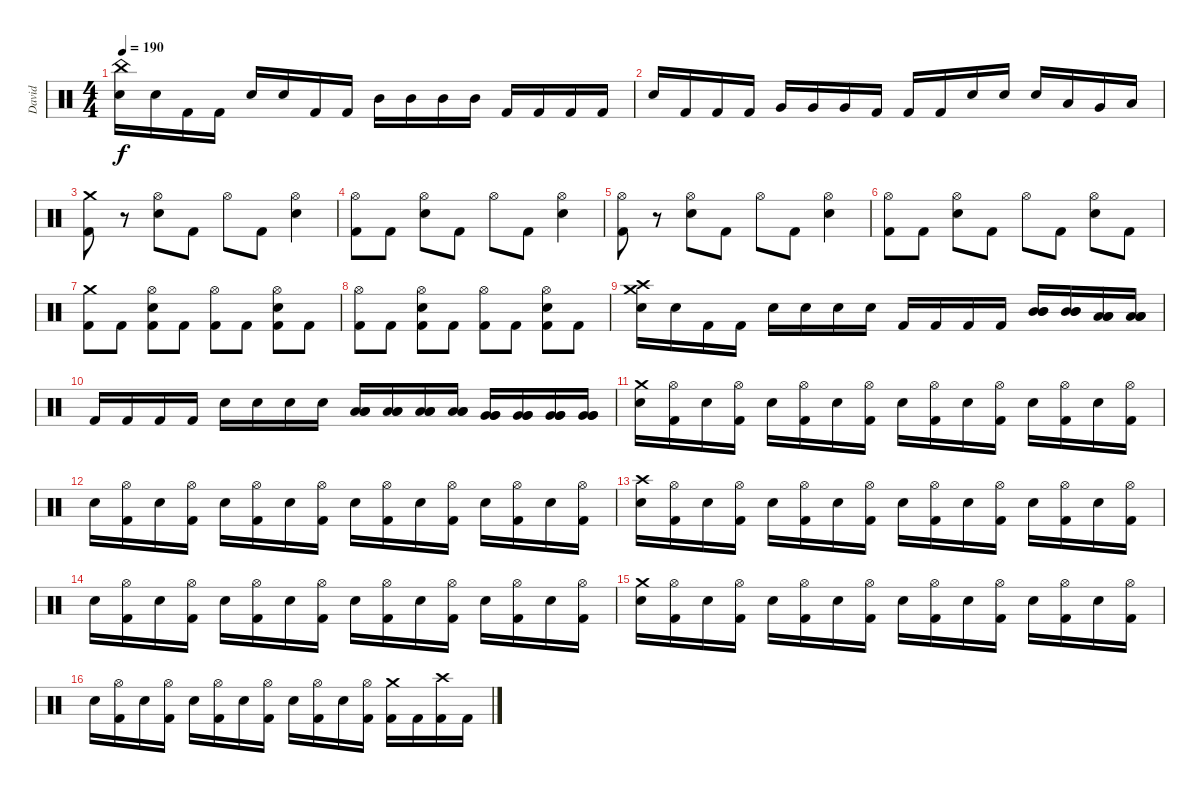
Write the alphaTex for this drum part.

\track ("David" "David") {instrument percussion}
\staff {score}
\articulation defaults
\ts (4 4)
\tempo 190
\clef neutral
\ks c
("China (hit)" "Electric Snare (hit)").16{dy f} "Electric Snare (hit)".16 "Kick (hit) 2".16 "Kick (hit) 2".16 "Electric Snare (hit)".16 "Electric Snare (hit)".16 "Kick (hit) 2".16 "Kick (hit) 2".16 "Mid Tom (hit)".16 "Mid Tom (hit)".16 "Mid Tom (hit)".16 "Mid Tom (hit)".16 "Kick (hit) 2".16 "Kick (hit) 2".16 "Kick (hit) 2".16 "Kick (hit) 2".16 |
"Electric Snare (hit)".16 "Kick (hit) 2".16 "Kick (hit) 2".16 "Kick (hit) 2".16 "Very Low Tom (hit)".16 "Very Low Tom (hit)".16 "Very Low Tom (hit)".16 "Kick (hit) 2".16 "Kick (hit) 2".16 "Kick (hit) 2".16 "Electric Snare (hit)".16 "Electric Snare (hit)".16 "Electric Snare (hit)".16 "Low Tom (hit)".16 "Very Low Tom (hit)".16 "Low Floor Tom (hit)".16 |
("Crash medium (hit)" "Kick (hit) 2").8 r.8 ("Hi-Hat (open)" "Electric Snare (hit)").8 "Kick (hit) 2".8 "Hi-Hat (open)".8 "Kick (hit) 2".8 ("Hi-Hat (open)" "Electric Snare (hit)").4 |
("Hi-Hat (open)" "Kick (hit) 2").8 "Kick (hit) 2".8 ("Hi-Hat (open)" "Electric Snare (hit)").8 "Kick (hit) 2".8 "Hi-Hat (open)".8 "Kick (hit) 2".8 ("Hi-Hat (open)" "Electric Snare (hit)").4 |
("Hi-Hat (open)" "Kick (hit) 2").8 r.8 ("Hi-Hat (open)" "Electric Snare (hit)").8 "Kick (hit) 2".8 "Hi-Hat (open)".8 "Kick (hit) 2".8 ("Hi-Hat (open)" "Electric Snare (hit)").4 |
("Hi-Hat (open)" "Kick (hit) 2").8 "Kick (hit) 2".8 ("Hi-Hat (open)" "Electric Snare (hit)").8 "Kick (hit) 2".8 "Hi-Hat (open)".8 "Kick (hit) 2".8 ("Hi-Hat (open)" "Electric Snare (hit)").8 "Kick (hit) 2".8 |
("Crash medium (hit)" "Kick (hit) 2").8 "Kick (hit) 2".8 ("Hi-Hat (open)" "Electric Snare (hit)" "Kick (hit) 2").8 "Kick (hit) 2".8 ("Hi-Hat (open)" "Kick (hit) 2").8 "Kick (hit) 2".8 ("Hi-Hat (open)" "Electric Snare (hit)" "Kick (hit) 2").8 "Kick (hit) 2".8 |
("Hi-Hat (open)" "Kick (hit) 2").8 "Kick (hit) 2".8 ("Hi-Hat (open)" "Electric Snare (hit)" "Kick (hit) 2").8 "Kick (hit) 2".8 ("Hi-Hat (open)" "Kick (hit) 2").8 "Kick (hit) 2".8 ("Hi-Hat (open)" "Electric Snare (hit)" "Kick (hit) 2").8 "Kick (hit) 2".8 |
("Crash high (hit)" "Crash medium (hit)" "Electric Snare (hit)").16 "Electric Snare (hit)".16 "Kick (hit) 2".16 "Kick (hit) 2".16 "Electric Snare (hit)".16 "Electric Snare (hit)".16 "Electric Snare (hit)".16 "Electric Snare (hit)".16 "Kick (hit) 2".16 "Kick (hit) 2".16 "Kick (hit) 2".16 "Kick (hit) 2".16 ("Mid Tom (hit)" "Mid Tom (hit)" "Mid Tom (hit)").16 ("Mid Tom (hit)" "Mid Tom (hit)" "Mid Tom (hit)").16 ("Low Tom (hit)" "Low Tom (hit)" "Low Tom (hit)").16 ("Low Tom (hit)" "Low Tom (hit)" "Low Tom (hit)").16 |
"Kick (hit) 2".16 "Kick (hit) 2".16 "Kick (hit) 2".16 "Kick (hit) 2".16 "Electric Snare (hit)".16 "Electric Snare (hit)".16 "Electric Snare (hit)".16 "Electric Snare (hit)".16 ("Low Tom (hit)" "Low Tom (hit)" "Low Tom (hit)").16 ("Low Tom (hit)" "Low Tom (hit)" "Low Tom (hit)").16 ("Low Tom (hit)" "Low Tom (hit)" "Low Tom (hit)").16 ("Low Tom (hit)" "Low Tom (hit)" "Low Tom (hit)").16 ("Very Low Tom (hit)" "Very Low Tom (hit)" "Very Low Tom (hit)").16 ("Very Low Tom (hit)" "Very Low Tom (hit)" "Very Low Tom (hit)").16 ("Very Low Tom (hit)" "Very Low Tom (hit)" "Very Low Tom (hit)").16 ("Very Low Tom (hit)" "Very Low Tom (hit)" "Very Low Tom (hit)").16 |
("Crash medium (hit)" "Electric Snare (hit)").16 ("Hi-Hat (open)" "Kick (hit) 2").16 "Electric Snare (hit)".16 ("Hi-Hat (open)" "Kick (hit) 2").16 "Electric Snare (hit)".16 ("Hi-Hat (open)" "Kick (hit) 2").16 "Electric Snare (hit)".16 ("Hi-Hat (open)" "Kick (hit) 2").16 "Electric Snare (hit)".16 ("Hi-Hat (open)" "Kick (hit) 2").16 "Electric Snare (hit)".16 ("Hi-Hat (open)" "Kick (hit) 2").16 "Electric Snare (hit)".16 ("Hi-Hat (open)" "Kick (hit) 2").16 "Electric Snare (hit)".16 ("Hi-Hat (open)" "Kick (hit) 2").16 |
"Electric Snare (hit)".16 ("Hi-Hat (open)" "Kick (hit) 2").16 "Electric Snare (hit)".16 ("Hi-Hat (open)" "Kick (hit) 2").16 "Electric Snare (hit)".16 ("Hi-Hat (open)" "Kick (hit) 2").16 "Electric Snare (hit)".16 ("Hi-Hat (open)" "Kick (hit) 2").16 "Electric Snare (hit)".16 ("Hi-Hat (open)" "Kick (hit) 2").16 "Electric Snare (hit)".16 ("Hi-Hat (open)" "Kick (hit) 2").16 "Electric Snare (hit)".16 ("Hi-Hat (open)" "Kick (hit) 2").16 "Electric Snare (hit)".16 ("Hi-Hat (open)" "Kick (hit) 2").16 |
("Crash high (hit)" "Electric Snare (hit)").16 ("Hi-Hat (open)" "Kick (hit) 2").16 "Electric Snare (hit)".16 ("Hi-Hat (open)" "Kick (hit) 2").16 "Electric Snare (hit)".16 ("Hi-Hat (open)" "Kick (hit) 2").16 "Electric Snare (hit)".16 ("Hi-Hat (open)" "Kick (hit) 2").16 "Electric Snare (hit)".16 ("Hi-Hat (open)" "Kick (hit) 2").16 "Electric Snare (hit)".16 ("Hi-Hat (open)" "Kick (hit) 2").16 "Electric Snare (hit)".16 ("Hi-Hat (open)" "Kick (hit) 2").16 "Electric Snare (hit)".16 ("Hi-Hat (open)" "Kick (hit) 2").16 |
"Electric Snare (hit)".16 ("Hi-Hat (open)" "Kick (hit) 2").16 "Electric Snare (hit)".16 ("Hi-Hat (open)" "Kick (hit) 2").16 "Electric Snare (hit)".16 ("Hi-Hat (open)" "Kick (hit) 2").16 "Electric Snare (hit)".16 ("Hi-Hat (open)" "Kick (hit) 2").16 "Electric Snare (hit)".16 ("Hi-Hat (open)" "Kick (hit) 2").16 "Electric Snare (hit)".16 ("Hi-Hat (open)" "Kick (hit) 2").16 "Electric Snare (hit)".16 ("Hi-Hat (open)" "Kick (hit) 2").16 "Electric Snare (hit)".16 ("Hi-Hat (open)" "Kick (hit) 2").16 |
("Crash medium (hit)" "Electric Snare (hit)").16 ("Hi-Hat (open)" "Kick (hit) 2").16 "Electric Snare (hit)".16 ("Hi-Hat (open)" "Kick (hit) 2").16 "Electric Snare (hit)".16 ("Hi-Hat (open)" "Kick (hit) 2").16 "Electric Snare (hit)".16 ("Hi-Hat (open)" "Kick (hit) 2").16 "Electric Snare (hit)".16 ("Hi-Hat (open)" "Kick (hit) 2").16 "Electric Snare (hit)".16 ("Hi-Hat (open)" "Kick (hit) 2").16 "Electric Snare (hit)".16 ("Hi-Hat (open)" "Kick (hit) 2").16 "Electric Snare (hit)".16 ("Hi-Hat (open)" "Kick (hit) 2").16 |
"Electric Snare (hit)".16 ("Hi-Hat (open)" "Kick (hit) 2").16 "Electric Snare (hit)".16 ("Hi-Hat (open)" "Kick (hit) 2").16 "Electric Snare (hit)".16 ("Hi-Hat (open)" "Kick (hit) 2").16 "Electric Snare (hit)".16 ("Hi-Hat (open)" "Kick (hit) 2").16 "Electric Snare (hit)".16 ("Hi-Hat (open)" "Kick (hit) 2").16 "Electric Snare (hit)".16 ("Hi-Hat (open)" "Kick (hit) 2").16 ("Crash medium (hit)" "Kick (hit) 2").16 "Kick (hit) 2".16 ("Crash high (hit)" "Kick (hit) 2").16 "Kick (hit) 2".16
